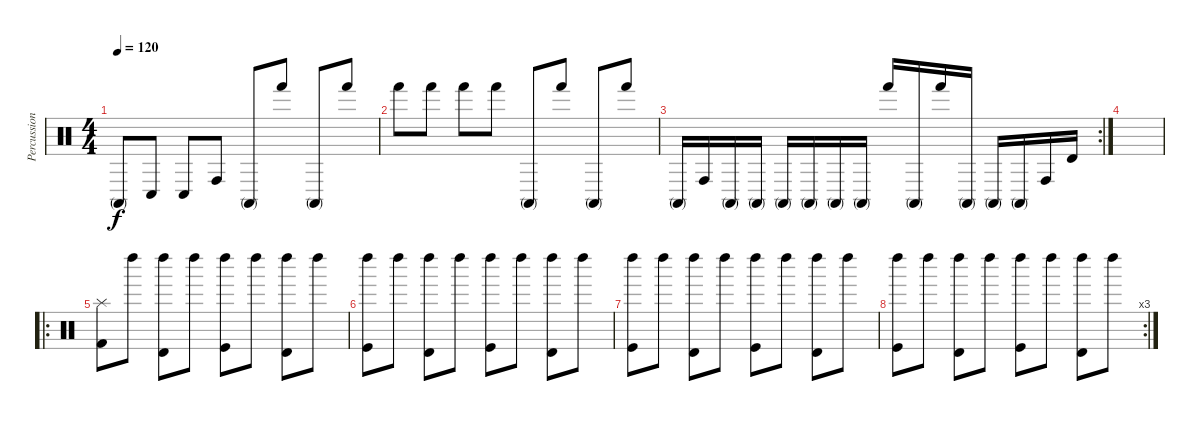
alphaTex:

\track ("Percussions" "Percussion") {instrument percussion}
\staff {score}
\articulation defaults
\ts (4 4)
\tempo 120
\clef neutral
\ks c "Conga high (mute)".8{dy f} "Conga low (hit)".8 "Conga low (hit)".8 "Conga high (hit)".8 "Conga high (mute)".8 "Hand (hit)".8 "Conga high (mute)".8 "Hand (hit)".8
|
"Hand (hit)".8 "Hand (hit)".8 "Hand (hit)".8 "Hand (hit)".8 "Conga high (mute)".8 "Hand (hit)".8 "Conga high (mute)".8 "Hand (hit)".8 |
\rc 2 "Conga high (mute)".16 "Conga high (hit)".16 "Conga high (mute)".16 "Conga high (mute)".16 "Conga high (mute)".16 "Conga high (mute)".16 "Conga high (mute)".16 "Conga high (mute)".16 "Hand (hit)".16 "Conga high (mute)".16 "Hand (hit)".16 "Conga high (mute)".16 "Conga high (mute)".16 "Conga high (mute)".16 "Conga high (hit)".16 "Timbale high (hit)".16
|
|
\ro
("Splash (hit)" "Kick (hit) 2").8 "Left Maraca (hit)".8 ("Left Maraca (hit)" "Timbale high (hit)").8 "Left Maraca (hit)".8 ("Left Maraca (hit)" "Kick (hit)").8 "Left Maraca (hit)".8 ("Left Maraca (hit)" "Timbale high (hit)").8 "Left Maraca (hit)".8 |
("Left Maraca (hit)" "Kick (hit)").8 "Left Maraca (hit)".8 ("Left Maraca (hit)" "Timbale high (hit)").8 "Left Maraca (hit)".8 ("Left Maraca (hit)" "Kick (hit)").8 "Left Maraca (hit)".8 ("Left Maraca (hit)" "Timbale high (hit)").8 "Left Maraca (hit)".8 |
("Left Maraca (hit)" "Kick (hit)").8 "Left Maraca (hit)".8 ("Left Maraca (hit)" "Timbale high (hit)").8 "Left Maraca (hit)".8 ("Left Maraca (hit)" "Kick (hit)").8 "Left Maraca (hit)".8 ("Left Maraca (hit)" "Timbale high (hit)").8 "Left Maraca (hit)".8 |
\rc 3
("Left Maraca (hit)" "Kick (hit)").8 "Left Maraca (hit)".8 ("Left Maraca (hit)" "Timbale high (hit)").8 "Left Maraca (hit)".8 ("Left Maraca (hit)" "Kick (hit)").8 "Left Maraca (hit)".8 ("Left Maraca (hit)" "Timbale high (hit)").8 "Left Maraca (hit)".8
